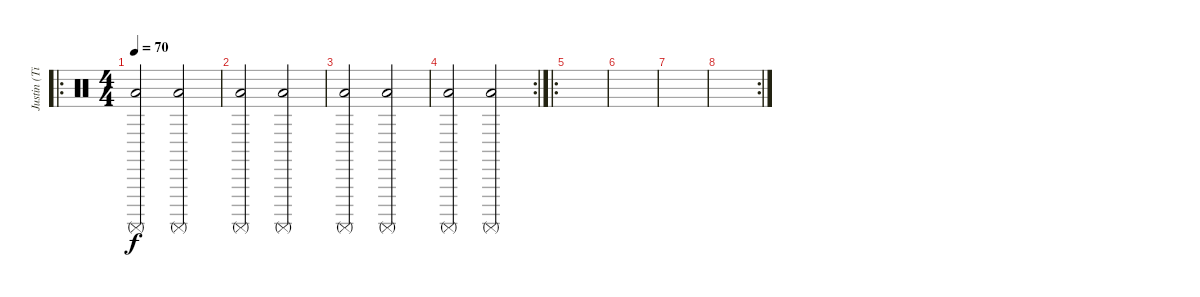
\track ("Justin (Timbals)" "Justin (Ti") {instrument percussion}
\staff {score}
\articulation defaults
\ro
\ts (4 4)
\tempo 70
\clef neutral
\ks c
("Surdo (mute)" "Low Floor Tom (hit)").2{dy f} ("Surdo (mute)" "Low Floor Tom (hit)").2 |
("Surdo (mute)" "Low Floor Tom (hit)").2 ("Surdo (mute)" "Low Floor Tom (hit)").2 |
("Surdo (mute)" "Low Floor Tom (hit)").2 ("Surdo (mute)" "Low Floor Tom (hit)").2 |
\rc 2
("Surdo (mute)" "Low Floor Tom (hit)").2 ("Surdo (mute)" "Low Floor Tom (hit)").2 |
\ro
|
|
|
\rc 2
